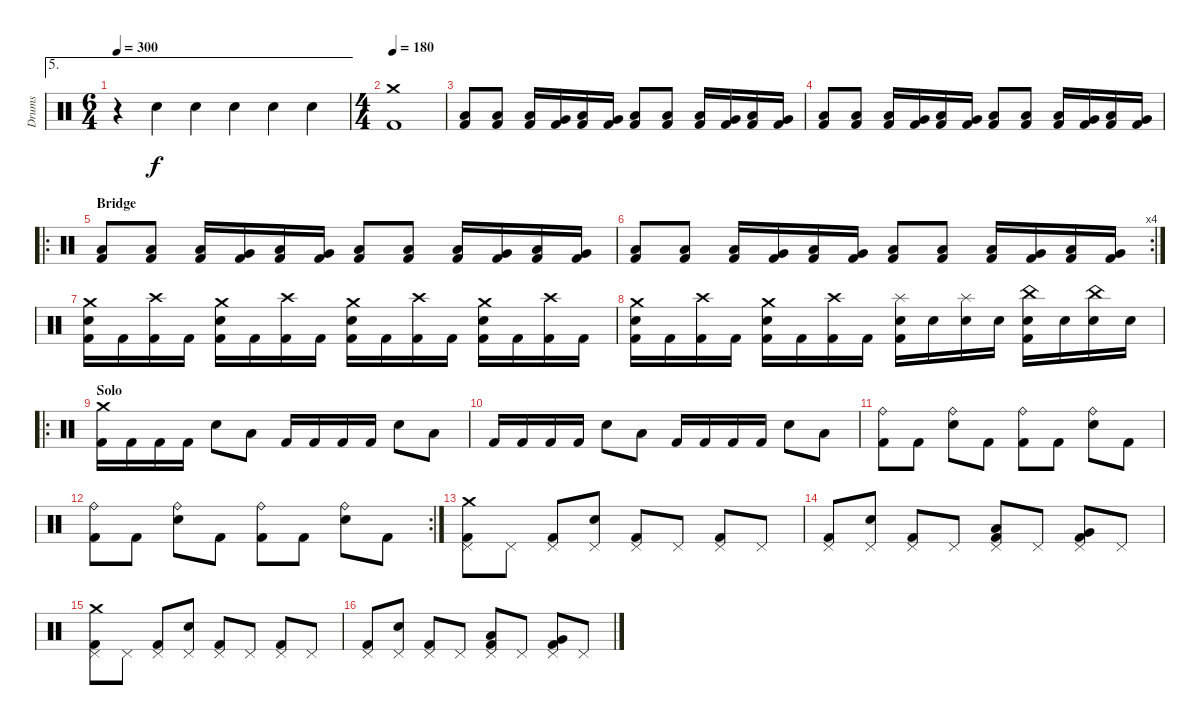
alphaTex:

\track ("Drums" "Drums") {instrument percussion}
\staff {score}
\articulation defaults
\ae 5
\ts (6 4)
\tempo 300
\clef neutral
\ks c
r.4{dy f} "Electric Snare (hit)".4 "Electric Snare (hit)".4 "Electric Snare (hit)".4 "Electric Snare (hit)".4 "Electric Snare (hit)".4 |
\ts (4 4)
\tempo 180
("Crash medium (hit)" "Kick (hit) 2").1 |
("Low Tom (hit)" "Kick (hit) 2").8 ("Low Tom (hit)" "Kick (hit) 2").8 ("Low Tom (hit)" "Kick (hit) 2").16 ("Very Low Tom (hit)" "Kick (hit) 2").16 ("Low Floor Tom (hit)" "Kick (hit) 2").16 ("Very Low Tom (hit)" "Kick (hit) 2").16 ("Low Tom (hit)" "Kick (hit) 2").8 ("Low Tom (hit)" "Kick (hit) 2").8 ("Low Tom (hit)" "Kick (hit) 2").16 ("Very Low Tom (hit)" "Kick (hit) 2").16 ("Low Floor Tom (hit)" "Kick (hit) 2").16 ("Very Low Tom (hit)" "Kick (hit) 2").16 |
("Low Tom (hit)" "Kick (hit) 2").8 ("Low Tom (hit)" "Kick (hit) 2").8 ("Low Tom (hit)" "Kick (hit) 2").16 ("Very Low Tom (hit)" "Kick (hit) 2").16 ("Low Floor Tom (hit)" "Kick (hit) 2").16 ("Very Low Tom (hit)" "Kick (hit) 2").16 ("Low Tom (hit)" "Kick (hit) 2").8 ("Low Tom (hit)" "Kick (hit) 2").8 ("Low Tom (hit)" "Kick (hit) 2").16 ("Very Low Tom (hit)" "Kick (hit) 2").16 ("Low Floor Tom (hit)" "Kick (hit) 2").16 ("Very Low Tom (hit)" "Kick (hit) 2").16 |
\ro
\section ("" "Bridge")
("Low Tom (hit)" "Kick (hit) 2").8 ("Low Tom (hit)" "Kick (hit) 2").8 ("Low Tom (hit)" "Kick (hit) 2").16 ("Very Low Tom (hit)" "Kick (hit) 2").16 ("Low Floor Tom (hit)" "Kick (hit) 2").16 ("Very Low Tom (hit)" "Kick (hit) 2").16 ("Low Tom (hit)" "Kick (hit) 2").8 ("Low Tom (hit)" "Kick (hit) 2").8 ("Low Tom (hit)" "Kick (hit) 2").16 ("Very Low Tom (hit)" "Kick (hit) 2").16 ("Low Floor Tom (hit)" "Kick (hit) 2").16 ("Very Low Tom (hit)" "Kick (hit) 2").16 |
\rc 4
("Low Tom (hit)" "Kick (hit) 2").8 ("Low Tom (hit)" "Kick (hit) 2").8 ("Low Tom (hit)" "Kick (hit) 2").16 ("Very Low Tom (hit)" "Kick (hit) 2").16 ("Low Floor Tom (hit)" "Kick (hit) 2").16 ("Very Low Tom (hit)" "Kick (hit) 2").16 ("Low Tom (hit)" "Kick (hit) 2").8 ("Low Tom (hit)" "Kick (hit) 2").8 ("Low Tom (hit)" "Kick (hit) 2").16 ("Very Low Tom (hit)" "Kick (hit) 2").16 ("Low Floor Tom (hit)" "Kick (hit) 2").16 ("Very Low Tom (hit)" "Kick (hit) 2").16 |
("Crash medium (hit)" "Kick (hit) 2" "Electric Snare (hit)").16 "Kick (hit) 2".16 ("Crash high (hit)" "Kick (hit) 2").16 "Kick (hit) 2".16 ("Crash medium (hit)" "Kick (hit) 2" "Electric Snare (hit)").16 "Kick (hit) 2".16 ("Crash high (hit)" "Kick (hit) 2").16 "Kick (hit) 2".16 ("Crash medium (hit)" "Kick (hit) 2" "Electric Snare (hit)").16 "Kick (hit) 2".16 ("Crash high (hit)" "Kick (hit) 2").16 "Kick (hit) 2".16 ("Crash medium (hit)" "Kick (hit) 2" "Electric Snare (hit)").16 "Kick (hit) 2".16 ("Crash high (hit)" "Kick (hit) 2").16 "Kick (hit) 2".16 |
("Crash medium (hit)" "Kick (hit) 2" "Electric Snare (hit)").16 "Kick (hit) 2".16 ("Crash high (hit)" "Kick (hit) 2").16 "Kick (hit) 2".16 ("Crash medium (hit)" "Kick (hit) 2" "Electric Snare (hit)").16 "Kick (hit) 2".16 ("Crash high (hit)" "Kick (hit) 2").16 "Kick (hit) 2".16 ("Splash (hit)" "Electric Snare (hit)" "Kick (hit) 2").16 "Electric Snare (hit)".16 ("Splash (hit)" "Electric Snare (hit)").16 "Electric Snare (hit)".16 ("China (hit)" "Electric Snare (hit)" "Kick (hit) 2").16 "Electric Snare (hit)".16 ("China (hit)" "Electric Snare (hit)").16 "Electric Snare (hit)".16 |
\ro
\section ("" "Solo")
("Crash medium (hit)" "Kick (hit) 2").16 "Kick (hit) 2".16 "Kick (hit) 2".16 "Kick (hit) 2".16 "Electric Snare (hit)".8 "Low Tom (hit)".8 "Kick (hit) 2".16 "Kick (hit) 2".16 "Kick (hit) 2".16 "Kick (hit) 2".16 "Electric Snare (hit)".8 "Low Tom (hit)".8 |
"Kick (hit) 2".16 "Kick (hit) 2".16 "Kick (hit) 2".16 "Kick (hit) 2".16 "Electric Snare (hit)".8 "Low Tom (hit)".8 "Kick (hit) 2".16 "Kick (hit) 2".16 "Kick (hit) 2".16 "Kick (hit) 2".16 "Electric Snare (hit)".8 "Low Tom (hit)".8 |
("Kick (hit) 2" "Ride (bell)").8 "Kick (hit) 2".8 ("Electric Snare (hit)" "Ride (bell)").8 "Kick (hit) 2".8 ("Kick (hit) 2" "Ride (bell)").8 "Kick (hit) 2".8 ("Electric Snare (hit)" "Ride (bell)").8 "Kick (hit) 2".8 |
\rc 2
("Kick (hit) 2" "Ride (bell)").8 "Kick (hit) 2".8 ("Electric Snare (hit)" "Ride (bell)").8 "Kick (hit) 2".8 ("Kick (hit) 2" "Ride (bell)").8 "Kick (hit) 2".8 ("Electric Snare (hit)" "Ride (bell)").8 "Kick (hit) 2".8 |
("Kick (hit) 2" "Crash medium (hit)" "Pedal Hi-Hat (hit)").8 "Pedal Hi-Hat (hit)".8 ("Kick (hit) 2" "Pedal Hi-Hat (hit)").8 ("Electric Snare (hit)" "Pedal Hi-Hat (hit)").8 ("Kick (hit) 2" "Pedal Hi-Hat (hit)").8 "Pedal Hi-Hat (hit)".8 ("Kick (hit) 2" "Pedal Hi-Hat (hit)").8 "Pedal Hi-Hat (hit)".8 |
("Kick (hit) 2" "Pedal Hi-Hat (hit)").8 ("Electric Snare (hit)" "Pedal Hi-Hat (hit)").8 ("Kick (hit) 2" "Pedal Hi-Hat (hit)").8 "Pedal Hi-Hat (hit)".8 ("Kick (hit) 2" "Low Tom (hit)" "Pedal Hi-Hat (hit)").8 "Pedal Hi-Hat (hit)".8 ("Kick (hit) 2" "Very Low Tom (hit)" "Pedal Hi-Hat (hit)").8 "Pedal Hi-Hat (hit)".8 |
("Kick (hit) 2" "Crash medium (hit)" "Pedal Hi-Hat (hit)").8 "Pedal Hi-Hat (hit)".8 ("Kick (hit) 2" "Pedal Hi-Hat (hit)").8 ("Electric Snare (hit)" "Pedal Hi-Hat (hit)").8 ("Kick (hit) 2" "Pedal Hi-Hat (hit)").8 "Pedal Hi-Hat (hit)".8 ("Kick (hit) 2" "Pedal Hi-Hat (hit)").8 "Pedal Hi-Hat (hit)".8 |
("Kick (hit) 2" "Pedal Hi-Hat (hit)").8 ("Electric Snare (hit)" "Pedal Hi-Hat (hit)").8 ("Kick (hit) 2" "Pedal Hi-Hat (hit)").8 "Pedal Hi-Hat (hit)".8 ("Kick (hit) 2" "Low Tom (hit)" "Pedal Hi-Hat (hit)").8 "Pedal Hi-Hat (hit)".8 ("Kick (hit) 2" "Very Low Tom (hit)" "Pedal Hi-Hat (hit)").8 "Pedal Hi-Hat (hit)".8
